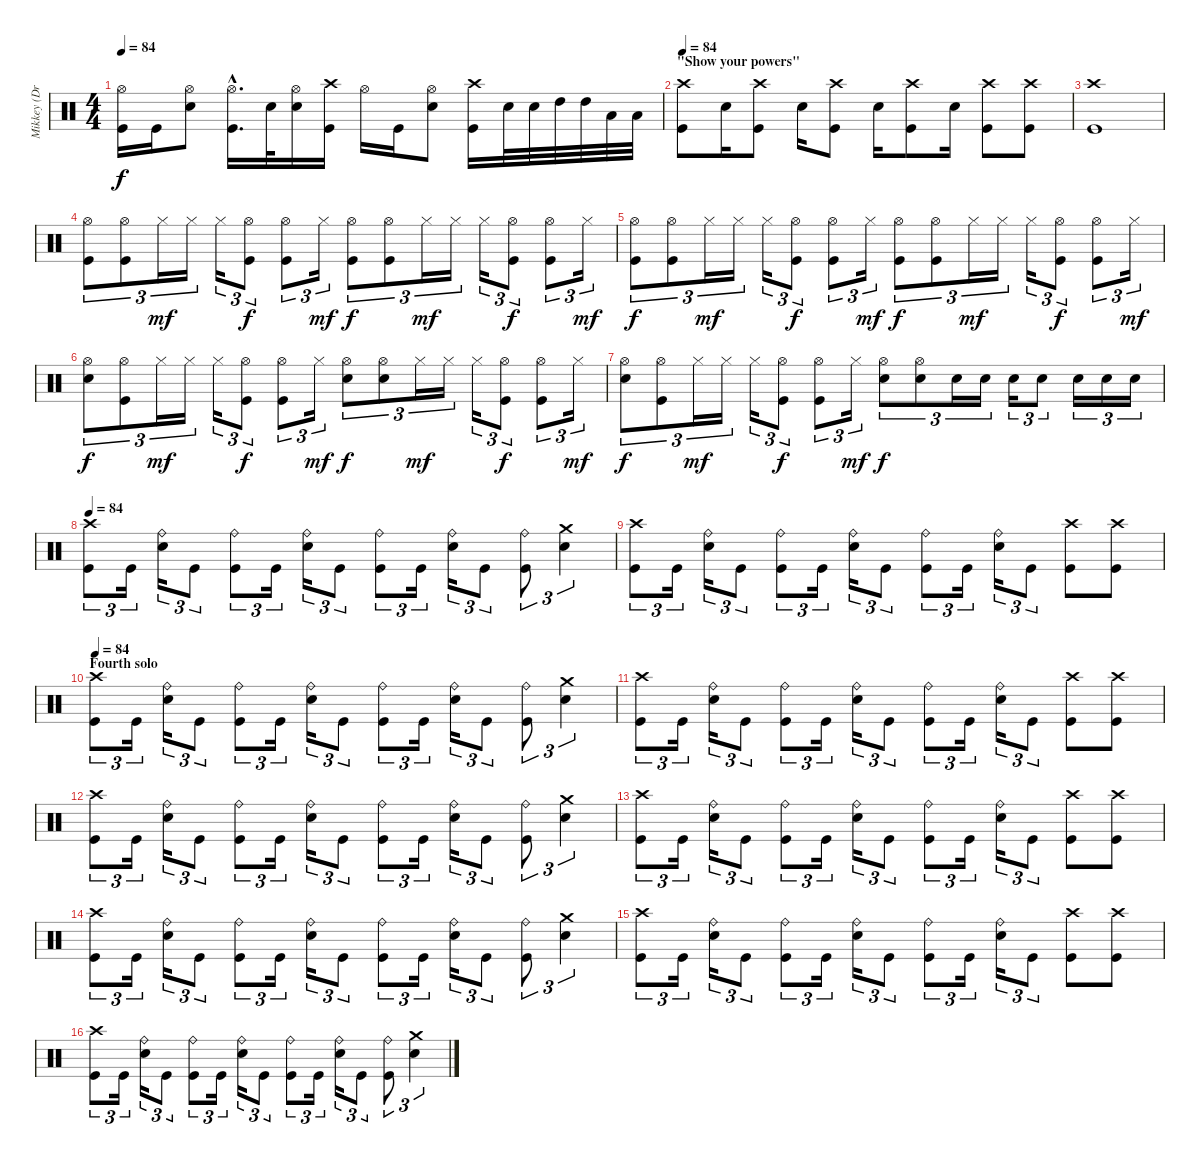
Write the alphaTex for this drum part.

\track ("Mikkey (Drums)" "Mikkey (Dr") {instrument percussion}
\staff {score}
\articulation defaults
\ts (4 4)
\tempo 84
\clef neutral
\ks c
("Hi-Hat (open)" "Kick (hit)").16{dy f} "Kick (hit)".16 ("Hi-Hat (open)" "Electric Snare (hit)").8 ("Hi-Hat (open)"{hac} "Kick (hit)"{hac}).16{d} "Electric Snare (hit)".32 ("Hi-Hat (open)" "Electric Snare (hit)").16 ("Crash high (hit)" "Kick (hit)").16 "Hi-Hat (open)".16 "Kick (hit)".16 ("Hi-Hat (open)" "Electric Snare (hit)").8 ("Crash high (hit)" "Kick (hit)").16 "Electric Snare (hit)".32 "Electric Snare (hit)".32 "High Tom (hit)".32 "High Tom (hit)".32 "Low Tom (hit)".32 "Low Tom (hit)".32 |
\section ("" "\"Show your powers\"")
\tempo 84
("Crash high (hit)" "Kick (hit)").8 "Electric Snare (hit)".16 ("Crash high (hit)" "Kick (hit)").8 "Electric Snare (hit)".16 ("Crash high (hit)" "Kick (hit)").8 "Electric Snare (hit)".16 ("Crash high (hit)" "Kick (hit)").8 "Electric Snare (hit)".16 ("Crash high (hit)" "Kick (hit)").8 ("Crash high (hit)" "Kick (hit)").8 |
("Crash high (hit)" "Kick (hit)").1 |
("Hi-Hat (open)" "Kick (hit)").8{tu (3 2)} ("Hi-Hat (open)" "Kick (hit)").8{tu (3 2)} "Hi-Hat (closed)".16{tu (3 2) dy mf} "Hi-Hat (closed)".16{tu (3 2)} "Hi-Hat (closed)".16{tu (3 2)} ("Hi-Hat (open)" "Kick (hit)").8{tu (3 2) dy f} ("Hi-Hat (open)" "Kick (hit)").8{tu (3 2)} "Hi-Hat (closed)".16{tu (3 2) dy mf} ("Hi-Hat (open)" "Kick (hit)").8{tu (3 2) dy f} ("Hi-Hat (open)" "Kick (hit)").8{tu (3 2)} "Hi-Hat (closed)".16{tu (3 2) dy mf} "Hi-Hat (closed)".16{tu (3 2)} "Hi-Hat (closed)".16{tu (3 2)} ("Hi-Hat (open)" "Kick (hit)").8{tu (3 2) dy f} ("Hi-Hat (open)" "Kick (hit)").8{tu (3 2)} "Hi-Hat (closed)".16{tu (3 2) dy mf} |
("Hi-Hat (open)" "Kick (hit)").8{tu (3 2) dy f} ("Hi-Hat (open)" "Kick (hit)").8{tu (3 2)} "Hi-Hat (closed)".16{tu (3 2) dy mf} "Hi-Hat (closed)".16{tu (3 2)} "Hi-Hat (closed)".16{tu (3 2)} ("Hi-Hat (open)" "Kick (hit)").8{tu (3 2) dy f} ("Hi-Hat (open)" "Kick (hit)").8{tu (3 2)} "Hi-Hat (closed)".16{tu (3 2) dy mf} ("Hi-Hat (open)" "Kick (hit)").8{tu (3 2) dy f} ("Hi-Hat (open)" "Kick (hit)").8{tu (3 2)} "Hi-Hat (closed)".16{tu (3 2) dy mf} "Hi-Hat (closed)".16{tu (3 2)} "Hi-Hat (closed)".16{tu (3 2)} ("Hi-Hat (open)" "Kick (hit)").8{tu (3 2) dy f} ("Hi-Hat (open)" "Kick (hit)").8{tu (3 2)} "Hi-Hat (closed)".16{tu (3 2) dy mf} |
("Hi-Hat (open)" "Electric Snare (hit)").8{tu (3 2) dy f} ("Hi-Hat (open)" "Kick (hit)").8{tu (3 2)} "Hi-Hat (closed)".16{tu (3 2) dy mf} "Hi-Hat (closed)".16{tu (3 2)} "Hi-Hat (closed)".16{tu (3 2)} ("Hi-Hat (open)" "Kick (hit)").8{tu (3 2) dy f} ("Hi-Hat (open)" "Kick (hit)").8{tu (3 2)} "Hi-Hat (closed)".16{tu (3 2) dy mf} ("Hi-Hat (open)" "Electric Snare (hit)").8{tu (3 2) dy f} ("Hi-Hat (open)" "Electric Snare (hit)").8{tu (3 2)} "Hi-Hat (closed)".16{tu (3 2) dy mf} "Hi-Hat (closed)".16{tu (3 2)} "Hi-Hat (closed)".16{tu (3 2)} ("Hi-Hat (open)" "Kick (hit)").8{tu (3 2) dy f} ("Hi-Hat (open)" "Kick (hit)").8{tu (3 2)} "Hi-Hat (closed)".16{tu (3 2) dy mf} |
("Hi-Hat (open)" "Electric Snare (hit)").8{tu (3 2) dy f} ("Hi-Hat (open)" "Kick (hit)").8{tu (3 2)} "Hi-Hat (closed)".16{tu (3 2) dy mf} "Hi-Hat (closed)".16{tu (3 2)} "Hi-Hat (closed)".16{tu (3 2)} ("Hi-Hat (open)" "Kick (hit)").8{tu (3 2) dy f} ("Hi-Hat (open)" "Kick (hit)").8{tu (3 2)} "Hi-Hat (closed)".16{tu (3 2) dy mf} ("Hi-Hat (open)" "Electric Snare (hit)").8{tu (3 2) dy f} ("Hi-Hat (open)" "Electric Snare (hit)").8{tu (3 2)} "Electric Snare (hit)".16{tu (3 2)} "Electric Snare (hit)".16{tu (3 2)} "Electric Snare (hit)".16{tu (3 2)} "Electric Snare (hit)".8{tu (3 2)} "Electric Snare (hit)".16{tu (3 2)} "Electric Snare (hit)".16{tu (3 2)} "Electric Snare (hit)".16{tu (3 2)} |
\tempo 84
("Crash high (hit)" "Kick (hit)").8{tu (3 2)} "Kick (hit)".16{tu (3 2)} ("Ride (bell)" "Electric Snare (hit)").16{tu (3 2)} "Kick (hit)".8{tu (3 2)} ("Ride (bell)" "Kick (hit)").8{tu (3 2)} "Kick (hit)".16{tu (3 2)} ("Ride (bell)" "Electric Snare (hit)").16{tu (3 2)} "Kick (hit)".8{tu (3 2)} ("Ride (bell)" "Kick (hit)").8{tu (3 2)} "Kick (hit)".16{tu (3 2)} ("Ride (bell)" "Electric Snare (hit)").16{tu (3 2)} "Kick (hit)".8{tu (3 2)} ("Ride (bell)" "Kick (hit)").8{tu (3 2)} ("Crash medium (hit)" "Electric Snare (hit)").4{tu (3 2)} |
("Crash high (hit)" "Kick (hit)").8{tu (3 2)} "Kick (hit)".16{tu (3 2)} ("Ride (bell)" "Electric Snare (hit)").16{tu (3 2)} "Kick (hit)".8{tu (3 2)} ("Ride (bell)" "Kick (hit)").8{tu (3 2)} "Kick (hit)".16{tu (3 2)} ("Ride (bell)" "Electric Snare (hit)").16{tu (3 2)} "Kick (hit)".8{tu (3 2)} ("Ride (bell)" "Kick (hit)").8{tu (3 2)} "Kick (hit)".16{tu (3 2)} ("Ride (bell)" "Electric Snare (hit)").16{tu (3 2)} "Kick (hit)".8{tu (3 2)} ("Crash high (hit)" "Kick (hit)").8 ("Crash high (hit)" "Kick (hit)").8 |
\section ("" "Fourth solo")
\tempo 84
("Crash high (hit)" "Kick (hit)").8{tu (3 2)} "Kick (hit)".16{tu (3 2)} ("Ride (bell)" "Electric Snare (hit)").16{tu (3 2)} "Kick (hit)".8{tu (3 2)} ("Ride (bell)" "Kick (hit)").8{tu (3 2)} "Kick (hit)".16{tu (3 2)} ("Ride (bell)" "Electric Snare (hit)").16{tu (3 2)} "Kick (hit)".8{tu (3 2)} ("Ride (bell)" "Kick (hit)").8{tu (3 2)} "Kick (hit)".16{tu (3 2)} ("Ride (bell)" "Electric Snare (hit)").16{tu (3 2)} "Kick (hit)".8{tu (3 2)} ("Ride (bell)" "Kick (hit)").8{tu (3 2)} ("Crash medium (hit)" "Electric Snare (hit)").4{tu (3 2)} |
("Crash high (hit)" "Kick (hit)").8{tu (3 2)} "Kick (hit)".16{tu (3 2)} ("Ride (bell)" "Electric Snare (hit)").16{tu (3 2)} "Kick (hit)".8{tu (3 2)} ("Ride (bell)" "Kick (hit)").8{tu (3 2)} "Kick (hit)".16{tu (3 2)} ("Ride (bell)" "Electric Snare (hit)").16{tu (3 2)} "Kick (hit)".8{tu (3 2)} ("Ride (bell)" "Kick (hit)").8{tu (3 2)} "Kick (hit)".16{tu (3 2)} ("Ride (bell)" "Electric Snare (hit)").16{tu (3 2)} "Kick (hit)".8{tu (3 2)} ("Crash high (hit)" "Kick (hit)").8 ("Crash high (hit)" "Kick (hit)").8 |
("Crash high (hit)" "Kick (hit)").8{tu (3 2)} "Kick (hit)".16{tu (3 2)} ("Ride (bell)" "Electric Snare (hit)").16{tu (3 2)} "Kick (hit)".8{tu (3 2)} ("Ride (bell)" "Kick (hit)").8{tu (3 2)} "Kick (hit)".16{tu (3 2)} ("Ride (bell)" "Electric Snare (hit)").16{tu (3 2)} "Kick (hit)".8{tu (3 2)} ("Ride (bell)" "Kick (hit)").8{tu (3 2)} "Kick (hit)".16{tu (3 2)} ("Ride (bell)" "Electric Snare (hit)").16{tu (3 2)} "Kick (hit)".8{tu (3 2)} ("Ride (bell)" "Kick (hit)").8{tu (3 2)} ("Crash medium (hit)" "Electric Snare (hit)").4{tu (3 2)} |
("Crash high (hit)" "Kick (hit)").8{tu (3 2)} "Kick (hit)".16{tu (3 2)} ("Ride (bell)" "Electric Snare (hit)").16{tu (3 2)} "Kick (hit)".8{tu (3 2)} ("Ride (bell)" "Kick (hit)").8{tu (3 2)} "Kick (hit)".16{tu (3 2)} ("Ride (bell)" "Electric Snare (hit)").16{tu (3 2)} "Kick (hit)".8{tu (3 2)} ("Ride (bell)" "Kick (hit)").8{tu (3 2)} "Kick (hit)".16{tu (3 2)} ("Ride (bell)" "Electric Snare (hit)").16{tu (3 2)} "Kick (hit)".8{tu (3 2)} ("Crash high (hit)" "Kick (hit)").8 ("Crash high (hit)" "Kick (hit)").8 |
("Crash high (hit)" "Kick (hit)").8{tu (3 2)} "Kick (hit)".16{tu (3 2)} ("Ride (bell)" "Electric Snare (hit)").16{tu (3 2)} "Kick (hit)".8{tu (3 2)} ("Ride (bell)" "Kick (hit)").8{tu (3 2)} "Kick (hit)".16{tu (3 2)} ("Ride (bell)" "Electric Snare (hit)").16{tu (3 2)} "Kick (hit)".8{tu (3 2)} ("Ride (bell)" "Kick (hit)").8{tu (3 2)} "Kick (hit)".16{tu (3 2)} ("Ride (bell)" "Electric Snare (hit)").16{tu (3 2)} "Kick (hit)".8{tu (3 2)} ("Ride (bell)" "Kick (hit)").8{tu (3 2)} ("Crash medium (hit)" "Electric Snare (hit)").4{tu (3 2)} |
("Crash high (hit)" "Kick (hit)").8{tu (3 2)} "Kick (hit)".16{tu (3 2)} ("Ride (bell)" "Electric Snare (hit)").16{tu (3 2)} "Kick (hit)".8{tu (3 2)} ("Ride (bell)" "Kick (hit)").8{tu (3 2)} "Kick (hit)".16{tu (3 2)} ("Ride (bell)" "Electric Snare (hit)").16{tu (3 2)} "Kick (hit)".8{tu (3 2)} ("Ride (bell)" "Kick (hit)").8{tu (3 2)} "Kick (hit)".16{tu (3 2)} ("Ride (bell)" "Electric Snare (hit)").16{tu (3 2)} "Kick (hit)".8{tu (3 2)} ("Crash high (hit)" "Kick (hit)").8 ("Crash high (hit)" "Kick (hit)").8 |
("Crash high (hit)" "Kick (hit)").8{tu (3 2)} "Kick (hit)".16{tu (3 2)} ("Ride (bell)" "Electric Snare (hit)").16{tu (3 2)} "Kick (hit)".8{tu (3 2)} ("Ride (bell)" "Kick (hit)").8{tu (3 2)} "Kick (hit)".16{tu (3 2)} ("Ride (bell)" "Electric Snare (hit)").16{tu (3 2)} "Kick (hit)".8{tu (3 2)} ("Ride (bell)" "Kick (hit)").8{tu (3 2)} "Kick (hit)".16{tu (3 2)} ("Ride (bell)" "Electric Snare (hit)").16{tu (3 2)} "Kick (hit)".8{tu (3 2)} ("Ride (bell)" "Kick (hit)").8{tu (3 2)} ("Crash medium (hit)" "Electric Snare (hit)").4{tu (3 2)}
